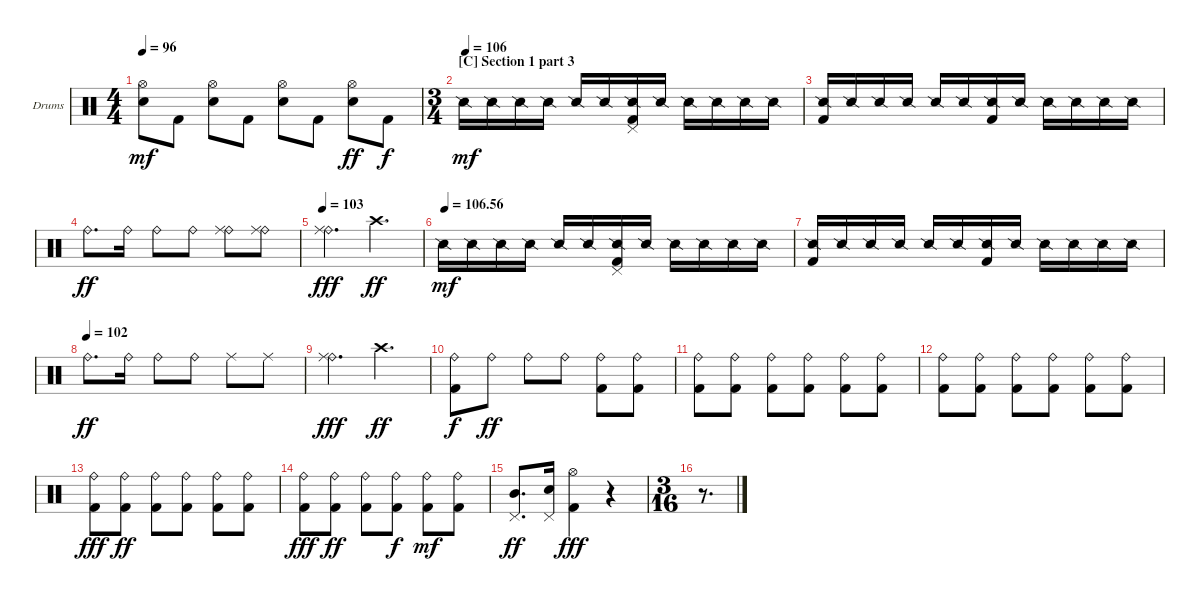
\defaultSystemsLayout 4
\bracketExtendMode nobrackets
\firstSystemTrackNameOrientation horizontal
\otherSystemsTrackNameOrientation horizontal
\track ("Drums" "Drums") {instrument percussion}
\staff
\articulation defaults
\ts (4 4)
\tempo 96
\clef neutral
\ks c
("Snare (hit) 2" "Hi-Hat (open)").8{dy mf} "Kick (hit) 2".8 ("Snare (hit) 2" "Hi-Hat (open)").8 "Kick (hit) 2".8 ("Snare (hit) 2" "Hi-Hat (open)").8 "Kick (hit) 2".8 ("Snare (hit) 2" "Hi-Hat (open)").8{dy ff} "Kick (hit) 2".8{dy f} |
\ts (3 4)
\beaming (8 2 2 2)
\section ("C" "Section 1 part 3")
\tempo (106)
"Snare (side stick) 2".16{dy mf} "Snare (side stick) 2".16 "Snare (side stick) 2".16 "Snare (side stick) 2".16 "Snare (side stick) 2".16 "Snare (side stick) 2".16 ("Snare (side stick) 2" "Kick (hit) 2" "Pedal Hi-Hat (hit)").16 "Snare (side stick) 2".16 "Snare (side stick) 2".16 "Snare (side stick) 2".16 "Snare (side stick) 2".16 "Snare (side stick) 2".16 |
("Snare (side stick) 2" "Kick (hit) 2").16 "Snare (side stick) 2".16 "Snare (side stick) 2".16 "Snare (side stick) 2".16 "Snare (side stick) 2".16 "Snare (side stick) 2".16 ("Snare (side stick) 2" "Kick (hit) 2").16 "Snare (side stick) 2".16 "Snare (side stick) 2".16 "Snare (side stick) 2".16 "Snare (side stick) 2".16 "Snare (side stick) 2".16 |
"Ride (bell)".8{d dy ff} "Ride (bell)".16 "Ride (bell)".8 "Ride (bell)".8 ("Ride (bell)" "Ride (middle)").8 ("Ride (bell)" "Ride (middle)").8 |
\tempo 103
("Ride (bell)" "Ride (middle)").4{d dy fff} "Crash high (hit)".4{d dy ff} |
\tempo (106.56)
"Snare (side stick) 2".16{dy mf} "Snare (side stick) 2".16 "Snare (side stick) 2".16 "Snare (side stick) 2".16 "Snare (side stick) 2".16 "Snare (side stick) 2".16 ("Snare (side stick) 2" "Kick (hit) 2" "Pedal Hi-Hat (hit)").16 "Snare (side stick) 2".16 "Snare (side stick) 2".16 "Snare (side stick) 2".16 "Snare (side stick) 2".16 "Snare (side stick) 2".16 |
("Snare (side stick) 2" "Kick (hit) 2").16 "Snare (side stick) 2".16 "Snare (side stick) 2".16 "Snare (side stick) 2".16 "Snare (side stick) 2".16 "Snare (side stick) 2".16 ("Snare (side stick) 2" "Kick (hit) 2").16 "Snare (side stick) 2".16 "Snare (side stick) 2".16 "Snare (side stick) 2".16 "Snare (side stick) 2".16 "Snare (side stick) 2".16 |
\tempo (102)
"Ride (bell)".8{d dy ff} "Ride (bell)".16 "Ride (bell)".8 "Ride (bell)".8 "Ride (middle)".8 "Ride (middle)".8 |
("Ride (bell)" "Ride (middle)").4{d dy fff} "Crash high (hit)".4{d dy ff} |
("Kick (hit) 2" "Ride (bell)").8{dy f} "Ride (bell)".8{dy ff} "Ride (bell)".8 "Ride (bell)".8 ("Ride (bell)" "Kick (hit) 2").8 ("Ride (bell)" "Kick (hit) 2").8 |
("Kick (hit) 2" "Ride (bell)").8 ("Ride (bell)" "Kick (hit) 2").8 ("Ride (bell)" "Kick (hit) 2").8 ("Ride (bell)" "Kick (hit) 2").8 ("Ride (bell)" "Kick (hit) 2").8 ("Ride (bell)" "Kick (hit) 2").8 |
("Kick (hit) 2" "Ride (bell)").8 ("Ride (bell)" "Kick (hit) 2").8 ("Ride (bell)" "Kick (hit) 2").8 ("Ride (bell)" "Kick (hit) 2").8 ("Ride (bell)" "Kick (hit) 2").8 ("Ride (bell)" "Kick (hit) 2").8 |
("Kick (hit) 2" "Ride (bell)").8{dy fff} ("Ride (bell)" "Kick (hit) 2").8{dy ff} ("Ride (bell)" "Kick (hit) 2").8 ("Ride (bell)" "Kick (hit) 2").8 ("Ride (bell)" "Kick (hit) 2").8 ("Ride (bell)" "Kick (hit) 2").8 |
("Kick (hit) 2" "Ride (bell)").8{dy fff} ("Ride (bell)" "Kick (hit) 2").8{dy ff} ("Ride (bell)" "Kick (hit) 2").8 ("Ride (bell)" "Kick (hit) 2").8{dy f} ("Ride (bell)" "Kick (hit) 2").8{dy mf} ("Ride (bell)" "Kick (hit) 2").8 |
("Mid Tom (hit)" "Pedal Hi-Hat (hit)").8{d dy ff} ("Snare (hit) 2" "Pedal Hi-Hat (hit)").16 ("Kick (hit) 2" "Hi-Hat (open)").4{dy fff} r.4 |
\ts (3 16)
\beaming (8 1)
r.8{d}
